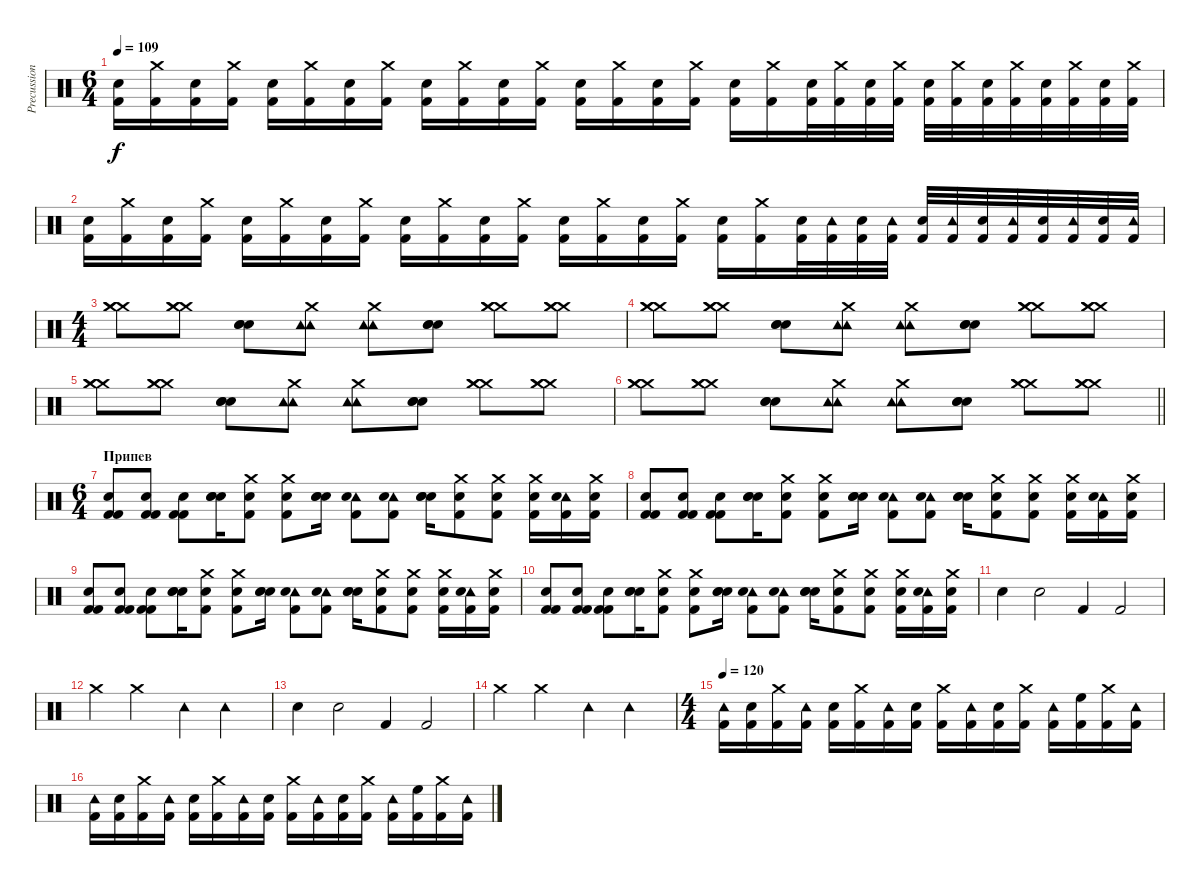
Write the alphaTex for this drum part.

\track ("Precussion" "Precussion") {instrument percussion}
\staff {score}
\articulation defaults
\ts (6 4)
\tempo 109
\clef neutral
\ks c
("Electric Snare (hit)" "Kick (hit) 2").16{dy f} ("Crash medium (hit)" "Kick (hit) 2").16 ("Electric Snare (hit)" "Kick (hit) 2").16 ("Crash medium (hit)" "Kick (hit) 2").16 ("Electric Snare (hit)" "Kick (hit) 2").16 ("Crash medium (hit)" "Kick (hit) 2").16 ("Electric Snare (hit)" "Kick (hit) 2").16 ("Crash medium (hit)" "Kick (hit) 2").16 ("Electric Snare (hit)" "Kick (hit) 2").16 ("Crash medium (hit)" "Kick (hit) 2").16 ("Electric Snare (hit)" "Kick (hit) 2").16 ("Crash medium (hit)" "Kick (hit) 2").16 ("Electric Snare (hit)" "Kick (hit) 2").16 ("Crash medium (hit)" "Kick (hit) 2").16 ("Electric Snare (hit)" "Kick (hit) 2").16 ("Crash medium (hit)" "Kick (hit) 2").16 ("Electric Snare (hit)" "Kick (hit) 2").16 ("Crash medium (hit)" "Kick (hit) 2").16 ("Electric Snare (hit)" "Kick (hit) 2").32 ("Crash medium (hit)" "Kick (hit) 2").32 ("Electric Snare (hit)" "Kick (hit) 2").32 ("Crash medium (hit)" "Kick (hit) 2").32 ("Electric Snare (hit)" "Kick (hit) 2").32 ("Crash medium (hit)" "Kick (hit) 2").32 ("Electric Snare (hit)" "Kick (hit) 2").32 ("Crash medium (hit)" "Kick (hit) 2").32 ("Electric Snare (hit)" "Kick (hit) 2").32 ("Crash medium (hit)" "Kick (hit) 2").32 ("Electric Snare (hit)" "Kick (hit) 2").32 ("Crash medium (hit)" "Kick (hit) 2").32 |
("Electric Snare (hit)" "Kick (hit) 2").16 ("Crash medium (hit)" "Kick (hit) 2").16 ("Electric Snare (hit)" "Kick (hit) 2").16 ("Crash medium (hit)" "Kick (hit) 2").16 ("Electric Snare (hit)" "Kick (hit) 2").16 ("Crash medium (hit)" "Kick (hit) 2").16 ("Electric Snare (hit)" "Kick (hit) 2").16 ("Crash medium (hit)" "Kick (hit) 2").16 ("Electric Snare (hit)" "Kick (hit) 2").16 ("Crash medium (hit)" "Kick (hit) 2").16 ("Electric Snare (hit)" "Kick (hit) 2").16 ("Crash medium (hit)" "Kick (hit) 2").16 ("Electric Snare (hit)" "Kick (hit) 2").16 ("Crash medium (hit)" "Kick (hit) 2").16 ("Electric Snare (hit)" "Kick (hit) 2").16 ("Crash medium (hit)" "Kick (hit) 2").16 ("Electric Snare (hit)" "Kick (hit) 2").16 ("Crash medium (hit)" "Kick (hit) 2").16 ("Electric Snare (hit)" "Kick (hit) 2").32 ("Tambourine (hit)" "Kick (hit) 2").32 ("Electric Snare (hit)" "Kick (hit) 2").32 ("Tambourine (hit)" "Kick (hit) 2").32 ("Electric Snare (hit)" "Kick (hit) 2").32 ("Tambourine (hit)" "Kick (hit) 2").32 ("Electric Snare (hit)" "Kick (hit) 2").32 ("Tambourine (hit)" "Kick (hit) 2").32 ("Electric Snare (hit)" "Kick (hit) 2").32 ("Tambourine (hit)" "Kick (hit) 2").32 ("Electric Snare (hit)" "Kick (hit) 2").32 ("Tambourine (hit)" "Kick (hit) 2").32 |
\ts (4 4)
("Crash medium (hit)" "Crash medium (hit)" "Crash medium (hit)").8 ("Crash medium (hit)" "Crash medium (hit)" "Crash medium (hit)").8 ("Electric Snare (hit)" "Electric Snare (hit)" "Electric Snare (hit)").8 ("Tambourine (hit)" "Tambourine (hit)" "Crash medium (hit)").8 ("Tambourine (hit)" "Tambourine (hit)" "Crash medium (hit)").8 ("Electric Snare (hit)" "Electric Snare (hit)" "Electric Snare (hit)").8 ("Crash medium (hit)" "Crash medium (hit)" "Crash medium (hit)").8 ("Crash medium (hit)" "Crash medium (hit)" "Crash medium (hit)").8 |
("Crash medium (hit)" "Crash medium (hit)" "Crash medium (hit)").8 ("Crash medium (hit)" "Crash medium (hit)" "Crash medium (hit)").8 ("Electric Snare (hit)" "Electric Snare (hit)" "Electric Snare (hit)").8 ("Tambourine (hit)" "Tambourine (hit)" "Crash medium (hit)").8 ("Tambourine (hit)" "Tambourine (hit)" "Crash medium (hit)").8 ("Electric Snare (hit)" "Electric Snare (hit)" "Electric Snare (hit)").8 ("Crash medium (hit)" "Crash medium (hit)" "Crash medium (hit)").8 ("Crash medium (hit)" "Crash medium (hit)" "Crash medium (hit)").8 |
("Crash medium (hit)" "Crash medium (hit)" "Crash medium (hit)").8 ("Crash medium (hit)" "Crash medium (hit)" "Crash medium (hit)").8 ("Electric Snare (hit)" "Electric Snare (hit)" "Electric Snare (hit)").8 ("Tambourine (hit)" "Tambourine (hit)" "Crash medium (hit)").8 ("Tambourine (hit)" "Tambourine (hit)" "Crash medium (hit)").8 ("Electric Snare (hit)" "Electric Snare (hit)" "Electric Snare (hit)").8 ("Crash medium (hit)" "Crash medium (hit)" "Crash medium (hit)").8 ("Crash medium (hit)" "Crash medium (hit)" "Crash medium (hit)").8 |
\barLineRight lightlight
("Crash medium (hit)" "Crash medium (hit)" "Crash medium (hit)").8 ("Crash medium (hit)" "Crash medium (hit)" "Crash medium (hit)").8 ("Electric Snare (hit)" "Electric Snare (hit)" "Electric Snare (hit)").8 ("Tambourine (hit)" "Tambourine (hit)" "Crash medium (hit)").8 ("Tambourine (hit)" "Tambourine (hit)" "Crash medium (hit)").8 ("Electric Snare (hit)" "Electric Snare (hit)" "Electric Snare (hit)").8 ("Crash medium (hit)" "Crash medium (hit)" "Crash medium (hit)").8 ("Crash medium (hit)" "Crash medium (hit)" "Crash medium (hit)").8 |
\ts (6 4)
\section ("" "Припев")
("Electric Snare (hit)" "Kick (hit) 2" "Kick (hit) 2").8 ("Electric Snare (hit)" "Kick (hit) 2" "Kick (hit) 2").8 ("Electric Snare (hit)" "Kick (hit) 2" "Kick (hit) 2").8 ("Electric Snare (hit)" "Electric Snare (hit)" "Electric Snare (hit)").16 ("Crash medium (hit)" "Electric Snare (hit)" "Kick (hit) 2").8 ("Crash medium (hit)" "Electric Snare (hit)" "Kick (hit) 2").8 ("Electric Snare (hit)" "Electric Snare (hit)" "Electric Snare (hit)").16 ("Tambourine (hit)" "Electric Snare (hit)" "Kick (hit) 2").8 ("Tambourine (hit)" "Electric Snare (hit)" "Kick (hit) 2").8 ("Electric Snare (hit)" "Electric Snare (hit)" "Electric Snare (hit)").16 ("Crash medium (hit)" "Electric Snare (hit)" "Kick (hit) 2").8 ("Crash medium (hit)" "Electric Snare (hit)" "Kick (hit) 2").8 ("Crash medium (hit)" "Electric Snare (hit)" "Kick (hit) 2").16 ("Tambourine (hit)" "Electric Snare (hit)" "Kick (hit) 2").16 ("Crash medium (hit)" "Electric Snare (hit)" "Kick (hit) 2").16 |
("Electric Snare (hit)" "Kick (hit) 2" "Kick (hit) 2").8 ("Electric Snare (hit)" "Kick (hit) 2" "Kick (hit) 2").8 ("Electric Snare (hit)" "Kick (hit) 2" "Kick (hit) 2").8 ("Electric Snare (hit)" "Electric Snare (hit)" "Electric Snare (hit)").16 ("Crash medium (hit)" "Electric Snare (hit)" "Kick (hit) 2").8 ("Crash medium (hit)" "Electric Snare (hit)" "Kick (hit) 2").8 ("Electric Snare (hit)" "Electric Snare (hit)" "Electric Snare (hit)").16 ("Tambourine (hit)" "Electric Snare (hit)" "Kick (hit) 2").8 ("Tambourine (hit)" "Electric Snare (hit)" "Kick (hit) 2").8 ("Electric Snare (hit)" "Electric Snare (hit)" "Electric Snare (hit)").16 ("Crash medium (hit)" "Electric Snare (hit)" "Kick (hit) 2").8 ("Crash medium (hit)" "Electric Snare (hit)" "Kick (hit) 2").8 ("Crash medium (hit)" "Electric Snare (hit)" "Kick (hit) 2").16 ("Tambourine (hit)" "Electric Snare (hit)" "Kick (hit) 2").16 ("Crash medium (hit)" "Electric Snare (hit)" "Kick (hit) 2").16 |
("Electric Snare (hit)" "Kick (hit) 2" "Kick (hit) 2").8 ("Electric Snare (hit)" "Kick (hit) 2" "Kick (hit) 2").8 ("Electric Snare (hit)" "Kick (hit) 2" "Kick (hit) 2").8 ("Electric Snare (hit)" "Electric Snare (hit)" "Electric Snare (hit)").16 ("Crash medium (hit)" "Electric Snare (hit)" "Kick (hit) 2").8 ("Crash medium (hit)" "Electric Snare (hit)" "Kick (hit) 2").8 ("Electric Snare (hit)" "Electric Snare (hit)" "Electric Snare (hit)").16 ("Tambourine (hit)" "Electric Snare (hit)" "Kick (hit) 2").8 ("Tambourine (hit)" "Electric Snare (hit)" "Kick (hit) 2").8 ("Electric Snare (hit)" "Electric Snare (hit)" "Electric Snare (hit)").16 ("Crash medium (hit)" "Electric Snare (hit)" "Kick (hit) 2").8 ("Crash medium (hit)" "Electric Snare (hit)" "Kick (hit) 2").8 ("Crash medium (hit)" "Electric Snare (hit)" "Kick (hit) 2").16 ("Tambourine (hit)" "Electric Snare (hit)" "Kick (hit) 2").16 ("Crash medium (hit)" "Electric Snare (hit)" "Kick (hit) 2").16 |
("Electric Snare (hit)" "Kick (hit) 2" "Kick (hit) 2").8 ("Electric Snare (hit)" "Kick (hit) 2" "Kick (hit) 2").8 ("Electric Snare (hit)" "Kick (hit) 2" "Kick (hit) 2").8 ("Electric Snare (hit)" "Electric Snare (hit)" "Electric Snare (hit)").16 ("Crash medium (hit)" "Electric Snare (hit)" "Kick (hit) 2").8 ("Crash medium (hit)" "Electric Snare (hit)" "Kick (hit) 2").8 ("Electric Snare (hit)" "Electric Snare (hit)" "Electric Snare (hit)").16 ("Tambourine (hit)" "Electric Snare (hit)" "Kick (hit) 2").8 ("Tambourine (hit)" "Electric Snare (hit)" "Kick (hit) 2").8 ("Electric Snare (hit)" "Electric Snare (hit)" "Electric Snare (hit)").16 ("Crash medium (hit)" "Electric Snare (hit)" "Kick (hit) 2").8 ("Crash medium (hit)" "Electric Snare (hit)" "Kick (hit) 2").8 ("Crash medium (hit)" "Electric Snare (hit)" "Kick (hit) 2").16 ("Tambourine (hit)" "Electric Snare (hit)" "Kick (hit) 2").16 ("Crash medium (hit)" "Electric Snare (hit)" "Kick (hit) 2").16 |
"Electric Snare (hit)".4 "Electric Snare (hit)".2 "Kick (hit) 2".4 "Kick (hit) 2".2 |
"Crash medium (hit)".4 "Crash medium (hit)".2 "Tambourine (hit)".4 "Tambourine (hit)".2 |
"Electric Snare (hit)".4 "Electric Snare (hit)".2 "Kick (hit) 2".4 "Kick (hit) 2".2 |
"Crash medium (hit)".4 "Crash medium (hit)".2 "Tambourine (hit)".4 "Tambourine (hit)".2 |
\ts (4 4)
\tempo 120
("Tambourine (hit)" "Kick (hit) 2").16 ("Electric Snare (hit)" "Kick (hit) 2").16 ("Crash medium (hit)" "Kick (hit) 2").16 ("Tambourine (hit)" "Kick (hit) 2").16 ("Electric Snare (hit)" "Kick (hit) 2").16 ("Crash medium (hit)" "Kick (hit) 2").16 ("Tambourine (hit)" "Kick (hit) 2").16 ("Electric Snare (hit)" "Kick (hit) 2").16 ("Crash medium (hit)" "Kick (hit) 2").16 ("Tambourine (hit)" "Kick (hit) 2").16 ("Electric Snare (hit)" "Kick (hit) 2").16 ("Crash medium (hit)" "Kick (hit) 2").16 ("Tambourine (hit)" "Kick (hit) 2").16 ("High Floor Tom (hit)" "Kick (hit) 2").16 ("Crash medium (hit)" "Kick (hit) 2").16 ("Tambourine (hit)" "Kick (hit) 2").16 |
("Tambourine (hit)" "Kick (hit) 2").16 ("Electric Snare (hit)" "Kick (hit) 2").16 ("Crash medium (hit)" "Kick (hit) 2").16 ("Tambourine (hit)" "Kick (hit) 2").16 ("Electric Snare (hit)" "Kick (hit) 2").16 ("Crash medium (hit)" "Kick (hit) 2").16 ("Tambourine (hit)" "Kick (hit) 2").16 ("Electric Snare (hit)" "Kick (hit) 2").16 ("Crash medium (hit)" "Kick (hit) 2").16 ("Tambourine (hit)" "Kick (hit) 2").16 ("Electric Snare (hit)" "Kick (hit) 2").16 ("Crash medium (hit)" "Kick (hit) 2").16 ("Tambourine (hit)" "Kick (hit) 2").16 ("High Floor Tom (hit)" "Kick (hit) 2").16 ("Crash medium (hit)" "Kick (hit) 2").16 ("Tambourine (hit)" "Kick (hit) 2").16
